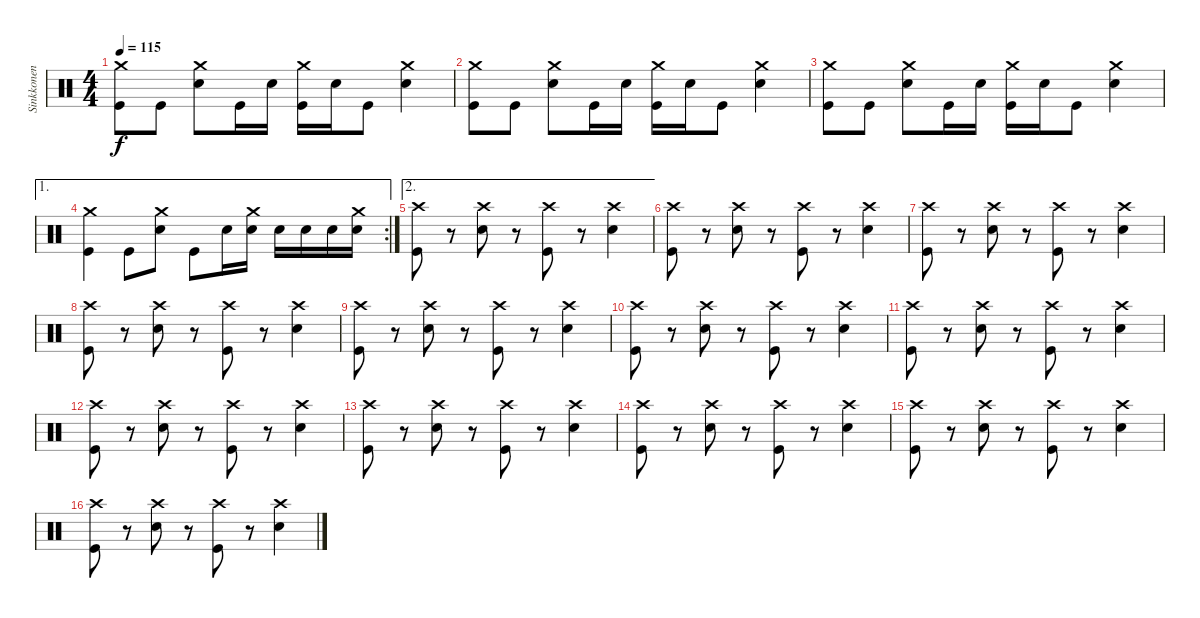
\track ("Sinkkonen" "Sinkkonen") {instrument percussion}
\staff {score}
\articulation defaults
\ts (4 4)
\tempo 115
\clef neutral
\ks c
("Crash medium (hit)" "Kick (hit)").8{dy f} "Kick (hit)".8 ("Crash medium (hit)" "Snare (hit) 2").8 "Kick (hit)".16 "Snare (hit) 2".16 ("Crash medium (hit)" "Kick (hit)").16 "Snare (hit) 2".16 "Kick (hit)".8 ("Crash medium (hit)" "Snare (hit) 2").4 |
("Crash medium (hit)" "Kick (hit)").8 "Kick (hit)".8 ("Crash medium (hit)" "Snare (hit) 2").8 "Kick (hit)".16 "Snare (hit) 2".16 ("Crash medium (hit)" "Kick (hit)").16 "Snare (hit) 2".16 "Kick (hit)".8 ("Crash medium (hit)" "Snare (hit) 2").4 |
("Crash medium (hit)" "Kick (hit)").8 "Kick (hit)".8 ("Crash medium (hit)" "Snare (hit) 2").8 "Kick (hit)".16 "Snare (hit) 2".16 ("Crash medium (hit)" "Kick (hit)").16 "Snare (hit) 2".16 "Kick (hit)".8 ("Crash medium (hit)" "Snare (hit) 2").4 |
\ae 1
\rc 2
("Crash medium (hit)" "Kick (hit)").4 "Kick (hit)".8 ("Crash medium (hit)" "Snare (hit) 2").8 "Kick (hit)".8 "Snare (hit) 2".16 ("Crash medium (hit)" "Snare (hit) 2").16 "Snare (hit) 2".16 "Snare (hit) 2".16 "Snare (hit) 2".16 ("Crash medium (hit)" "Snare (hit) 2").16 |
\ae 2
("Crash high (hit)" "Kick (hit)").8 r.8 ("Crash high (hit)" "Snare (hit) 2").8 r.8 ("Crash high (hit)" "Kick (hit)").8 r.8 ("Crash high (hit)" "Snare (hit) 2").4 |
("Crash high (hit)" "Kick (hit)").8 r.8 ("Crash high (hit)" "Snare (hit) 2").8 r.8 ("Crash high (hit)" "Kick (hit)").8 r.8 ("Crash high (hit)" "Snare (hit) 2").4 |
("Crash high (hit)" "Kick (hit)").8 r.8 ("Crash high (hit)" "Snare (hit) 2").8 r.8 ("Crash high (hit)" "Kick (hit)").8 r.8 ("Crash high (hit)" "Snare (hit) 2").4 |
("Crash high (hit)" "Kick (hit)").8 r.8 ("Crash high (hit)" "Snare (hit) 2").8 r.8 ("Crash high (hit)" "Kick (hit)").8 r.8 ("Crash high (hit)" "Snare (hit) 2").4 |
("Crash high (hit)" "Kick (hit)").8 r.8 ("Crash high (hit)" "Snare (hit) 2").8 r.8 ("Crash high (hit)" "Kick (hit)").8 r.8 ("Crash high (hit)" "Snare (hit) 2").4 |
("Crash high (hit)" "Kick (hit)").8 r.8 ("Crash high (hit)" "Snare (hit) 2").8 r.8 ("Crash high (hit)" "Kick (hit)").8 r.8 ("Crash high (hit)" "Snare (hit) 2").4 |
("Crash high (hit)" "Kick (hit)").8 r.8 ("Crash high (hit)" "Snare (hit) 2").8 r.8 ("Crash high (hit)" "Kick (hit)").8 r.8 ("Crash high (hit)" "Snare (hit) 2").4 |
("Crash high (hit)" "Kick (hit)").8 r.8 ("Crash high (hit)" "Snare (hit) 2").8 r.8 ("Crash high (hit)" "Kick (hit)").8 r.8 ("Crash high (hit)" "Snare (hit) 2").4 |
("Crash high (hit)" "Kick (hit)").8 r.8 ("Crash high (hit)" "Snare (hit) 2").8 r.8 ("Crash high (hit)" "Kick (hit)").8 r.8 ("Crash high (hit)" "Snare (hit) 2").4 |
("Crash high (hit)" "Kick (hit)").8 r.8 ("Crash high (hit)" "Snare (hit) 2").8 r.8 ("Crash high (hit)" "Kick (hit)").8 r.8 ("Crash high (hit)" "Snare (hit) 2").4 |
("Crash high (hit)" "Kick (hit)").8 r.8 ("Crash high (hit)" "Snare (hit) 2").8 r.8 ("Crash high (hit)" "Kick (hit)").8 r.8 ("Crash high (hit)" "Snare (hit) 2").4 |
("Crash high (hit)" "Kick (hit)").8 r.8 ("Crash high (hit)" "Snare (hit) 2").8 r.8 ("Crash high (hit)" "Kick (hit)").8 r.8 ("Crash high (hit)" "Snare (hit) 2").4
